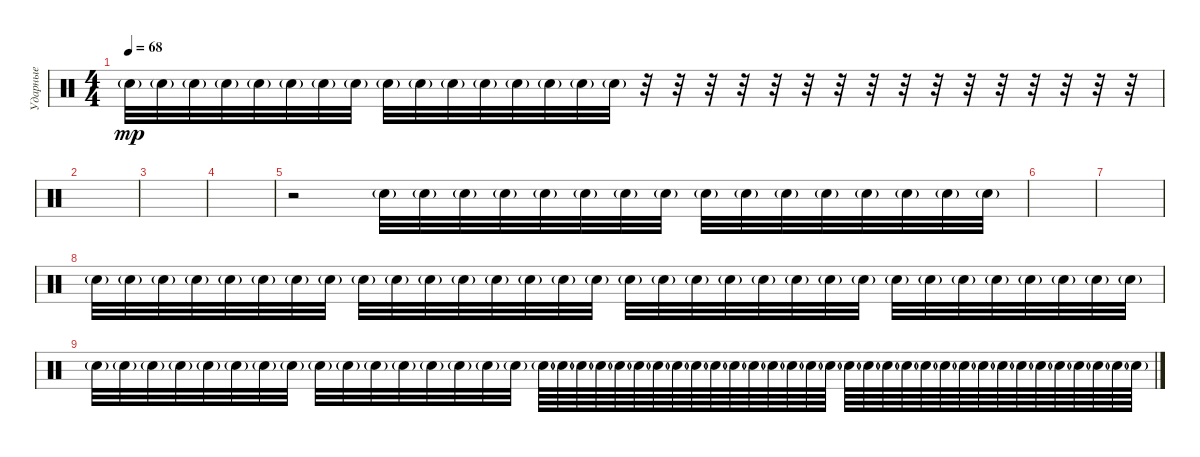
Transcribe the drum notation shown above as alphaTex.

\track ("Ударные" "Ударные") {instrument percussion}
\staff {score}
\articulation defaults
\ts (4 4)
\tempo 68
\clef neutral
\ks c "Snare (hit) 2"{g}.32{dy mp} "Snare (hit) 2"{g}.32 "Snare (hit) 2"{g}.32 "Snare (hit) 2"{g}.32 "Snare (hit) 2"{g}.32 "Snare (hit) 2"{g}.32 "Snare (hit) 2"{g}.32 "Snare (hit) 2"{g}.32 "Snare (hit) 2"{g}.32 "Snare (hit) 2"{g}.32 "Snare (hit) 2"{g}.32 "Snare (hit) 2"{g}.32 "Snare (hit) 2"{g}.32 "Snare (hit) 2"{g}.32 "Snare (hit) 2"{g}.32 "Snare (hit) 2"{g}.32
r.32 r.32 r.32 r.32 r.32 r.32 r.32 r.32 r.32 r.32 r.32 r.32 r.32 r.32 r.32 r.32 |
|
|
|
r.2 "Snare (hit) 2"{g}.32 "Snare (hit) 2"{g}.32 "Snare (hit) 2"{g}.32 "Snare (hit) 2"{g}.32 "Snare (hit) 2"{g}.32 "Snare (hit) 2"{g}.32 "Snare (hit) 2"{g}.32 "Snare (hit) 2"{g}.32 "Snare (hit) 2"{g}.32 "Snare (hit) 2"{g}.32 "Snare (hit) 2"{g}.32 "Snare (hit) 2"{g}.32 "Snare (hit) 2"{g}.32 "Snare (hit) 2"{g}.32 "Snare (hit) 2"{g}.32 "Snare (hit) 2"{g}.32 |
|
|
"Snare (hit) 2"{g}.32 "Snare (hit) 2"{g}.32 "Snare (hit) 2"{g}.32 "Snare (hit) 2"{g}.32 "Snare (hit) 2"{g}.32 "Snare (hit) 2"{g}.32 "Snare (hit) 2"{g}.32 "Snare (hit) 2"{g}.32 "Snare (hit) 2"{g}.32 "Snare (hit) 2"{g}.32 "Snare (hit) 2"{g}.32 "Snare (hit) 2"{g}.32 "Snare (hit) 2"{g}.32 "Snare (hit) 2"{g}.32 "Snare (hit) 2"{g}.32 "Snare (hit) 2"{g}.32 "Snare (hit) 2"{g}.32 "Snare (hit) 2"{g}.32 "Snare (hit) 2"{g}.32 "Snare (hit) 2"{g}.32 "Snare (hit) 2"{g}.32 "Snare (hit) 2"{g}.32 "Snare (hit) 2"{g}.32 "Snare (hit) 2"{g}.32 "Snare (hit) 2"{g}.32 "Snare (hit) 2"{g}.32 "Snare (hit) 2"{g}.32 "Snare (hit) 2"{g}.32 "Snare (hit) 2"{g}.32 "Snare (hit) 2"{g}.32 "Snare (hit) 2"{g}.32 "Snare (hit) 2"{g}.32 |
"Snare (hit) 2"{g}.32 "Snare (hit) 2"{g}.32 "Snare (hit) 2"{g}.32 "Snare (hit) 2"{g}.32 "Snare (hit) 2"{g}.32 "Snare (hit) 2"{g}.32 "Snare (hit) 2"{g}.32 "Snare (hit) 2"{g}.32 "Snare (hit) 2"{g}.32 "Snare (hit) 2"{g}.32 "Snare (hit) 2"{g}.32 "Snare (hit) 2"{g}.32 "Snare (hit) 2"{g}.32 "Snare (hit) 2"{g}.32 "Snare (hit) 2"{g}.32 "Snare (hit) 2"{g}.32 "Snare (hit) 2"{g}.64 "Snare (hit) 2"{g}.64 "Snare (hit) 2"{g}.64 "Snare (hit) 2"{g}.64 "Snare (hit) 2"{g}.64 "Snare (hit) 2"{g}.64 "Snare (hit) 2"{g}.64 "Snare (hit) 2"{g}.64 "Snare (hit) 2"{g}.64 "Snare (hit) 2"{g}.64 "Snare (hit) 2"{g}.64 "Snare (hit) 2"{g}.64 "Snare (hit) 2"{g}.64 "Snare (hit) 2"{g}.64 "Snare (hit) 2"{g}.64 "Snare (hit) 2"{g}.64 "Snare (hit) 2"{g}.64 "Snare (hit) 2"{g}.64 "Snare (hit) 2"{g}.64 "Snare (hit) 2"{g}.64 "Snare (hit) 2"{g}.64 "Snare (hit) 2"{g}.64 "Snare (hit) 2"{g}.64 "Snare (hit) 2"{g}.64 "Snare (hit) 2"{g}.64 "Snare (hit) 2"{g}.64 "Snare (hit) 2"{g}.64 "Snare (hit) 2"{g}.64 "Snare (hit) 2"{g}.64 "Snare (hit) 2"{g}.64 "Snare (hit) 2"{g}.64 "Snare (hit) 2"{g}.64
